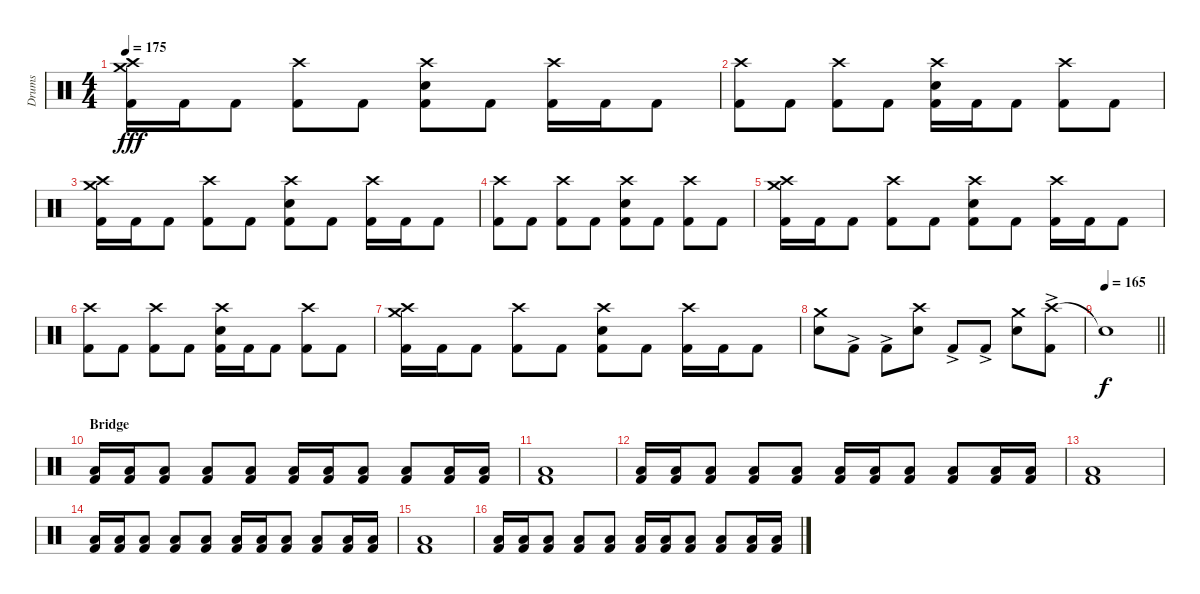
\track ("Drums" "Drums") {instrument percussion}
\staff {score}
\articulation defaults
\ts (4 4)
\tempo 175
\clef neutral
\ks c
("Crash high (hit)" "Crash medium (hit)" "Kick (hit) 2").16{dy fff} "Kick (hit) 2".16 "Kick (hit) 2".8 ("Crash high (hit)" "Kick (hit) 2").8 "Kick (hit) 2".8 ("Crash high (hit)" "Electric Snare (hit)" "Kick (hit) 2").8 "Kick (hit) 2".8 ("Crash high (hit)" "Kick (hit) 2").16 "Kick (hit) 2".16 "Kick (hit) 2".8 |
("Crash high (hit)" "Kick (hit) 2").8 "Kick (hit) 2".8 ("Crash high (hit)" "Kick (hit) 2").8 "Kick (hit) 2".8 ("Crash high (hit)" "Electric Snare (hit)" "Kick (hit) 2").16 "Kick (hit) 2".16 "Kick (hit) 2".8 ("Crash high (hit)" "Kick (hit) 2").8 "Kick (hit) 2".8 |
("Crash high (hit)" "Crash medium (hit)" "Kick (hit) 2").16 "Kick (hit) 2".16 "Kick (hit) 2".8 ("Crash high (hit)" "Kick (hit) 2").8 "Kick (hit) 2".8 ("Crash high (hit)" "Electric Snare (hit)" "Kick (hit) 2").8 "Kick (hit) 2".8 ("Crash high (hit)" "Kick (hit) 2").16 "Kick (hit) 2".16 "Kick (hit) 2".8 |
("Crash high (hit)" "Kick (hit) 2").8 "Kick (hit) 2".8 ("Crash high (hit)" "Kick (hit) 2").8 "Kick (hit) 2".8 ("Crash high (hit)" "Electric Snare (hit)" "Kick (hit) 2").8 "Kick (hit) 2".8 ("Crash high (hit)" "Kick (hit) 2").8 "Kick (hit) 2".8 |
("Crash high (hit)" "Crash medium (hit)" "Kick (hit) 2").16 "Kick (hit) 2".16 "Kick (hit) 2".8 ("Crash high (hit)" "Kick (hit) 2").8 "Kick (hit) 2".8 ("Crash high (hit)" "Electric Snare (hit)" "Kick (hit) 2").8 "Kick (hit) 2".8 ("Crash high (hit)" "Kick (hit) 2").16 "Kick (hit) 2".16 "Kick (hit) 2".8 |
("Crash high (hit)" "Kick (hit) 2").8 "Kick (hit) 2".8 ("Crash high (hit)" "Kick (hit) 2").8 "Kick (hit) 2".8 ("Crash high (hit)" "Electric Snare (hit)" "Kick (hit) 2").16 "Kick (hit) 2".16 "Kick (hit) 2".8 ("Crash high (hit)" "Kick (hit) 2").8 "Kick (hit) 2".8 |
("Crash high (hit)" "Crash medium (hit)" "Kick (hit) 2").16 "Kick (hit) 2".16 "Kick (hit) 2".8 ("Crash high (hit)" "Kick (hit) 2").8 "Kick (hit) 2".8 ("Crash high (hit)" "Electric Snare (hit)" "Kick (hit) 2").8 "Kick (hit) 2".8 ("Crash high (hit)" "Kick (hit) 2").16 "Kick (hit) 2".16 "Kick (hit) 2".8 |
("Crash medium (hit)" "Electric Snare (hit)").8 "Kick (hit) 2"{ac}.8 "Kick (hit) 2"{ac}.8 ("Crash high (hit)" "Electric Snare (hit)").8 "Kick (hit) 2"{ac}.8 "Kick (hit) 2"{ac}.8 ("Crash medium (hit)" "Electric Snare (hit)").8 ("Crash high (hit)" "Kick (hit) 2"{ac}).8 |
\tempo 165
\barLineRight lightlight "Snare (hit)"{t}.1{dy f}
|
\section ("" "Bridge")
("Low Floor Tom (hit)" "Kick (hit) 2").16 ("Low Floor Tom (hit)" "Kick (hit) 2").16 ("Low Floor Tom (hit)" "Kick (hit) 2").8 ("Low Floor Tom (hit)" "Kick (hit) 2").8 ("Low Floor Tom (hit)" "Kick (hit) 2").8 ("Low Floor Tom (hit)" "Kick (hit) 2").16 ("Low Floor Tom (hit)" "Kick (hit) 2").16 ("Low Floor Tom (hit)" "Kick (hit) 2").8 ("Low Floor Tom (hit)" "Kick (hit) 2").8 ("Low Floor Tom (hit)" "Kick (hit) 2").16 ("Low Floor Tom (hit)" "Kick (hit) 2").16 |
("Low Floor Tom (hit)" "Kick (hit) 2").1 |
("Low Floor Tom (hit)" "Kick (hit) 2").16 ("Low Floor Tom (hit)" "Kick (hit) 2").16 ("Low Floor Tom (hit)" "Kick (hit) 2").8 ("Low Floor Tom (hit)" "Kick (hit) 2").8 ("Low Floor Tom (hit)" "Kick (hit) 2").8 ("Low Floor Tom (hit)" "Kick (hit) 2").16 ("Low Floor Tom (hit)" "Kick (hit) 2").16 ("Low Floor Tom (hit)" "Kick (hit) 2").8 ("Low Floor Tom (hit)" "Kick (hit) 2").8 ("Low Floor Tom (hit)" "Kick (hit) 2").16 ("Low Floor Tom (hit)" "Kick (hit) 2").16 |
("Low Floor Tom (hit)" "Kick (hit) 2").1 |
("Low Floor Tom (hit)" "Kick (hit) 2").16 ("Low Floor Tom (hit)" "Kick (hit) 2").16 ("Low Floor Tom (hit)" "Kick (hit) 2").8 ("Low Floor Tom (hit)" "Kick (hit) 2").8 ("Low Floor Tom (hit)" "Kick (hit) 2").8 ("Low Floor Tom (hit)" "Kick (hit) 2").16 ("Low Floor Tom (hit)" "Kick (hit) 2").16 ("Low Floor Tom (hit)" "Kick (hit) 2").8 ("Low Floor Tom (hit)" "Kick (hit) 2").8 ("Low Floor Tom (hit)" "Kick (hit) 2").16 ("Low Floor Tom (hit)" "Kick (hit) 2").16 |
("Low Floor Tom (hit)" "Kick (hit) 2").1 |
("Low Floor Tom (hit)" "Kick (hit) 2").16 ("Low Floor Tom (hit)" "Kick (hit) 2").16 ("Low Floor Tom (hit)" "Kick (hit) 2").8 ("Low Floor Tom (hit)" "Kick (hit) 2").8 ("Low Floor Tom (hit)" "Kick (hit) 2").8 ("Low Floor Tom (hit)" "Kick (hit) 2").16 ("Low Floor Tom (hit)" "Kick (hit) 2").16 ("Low Floor Tom (hit)" "Kick (hit) 2").8 ("Low Floor Tom (hit)" "Kick (hit) 2").8 ("Low Floor Tom (hit)" "Kick (hit) 2").16 ("Low Floor Tom (hit)" "Kick (hit) 2").16
